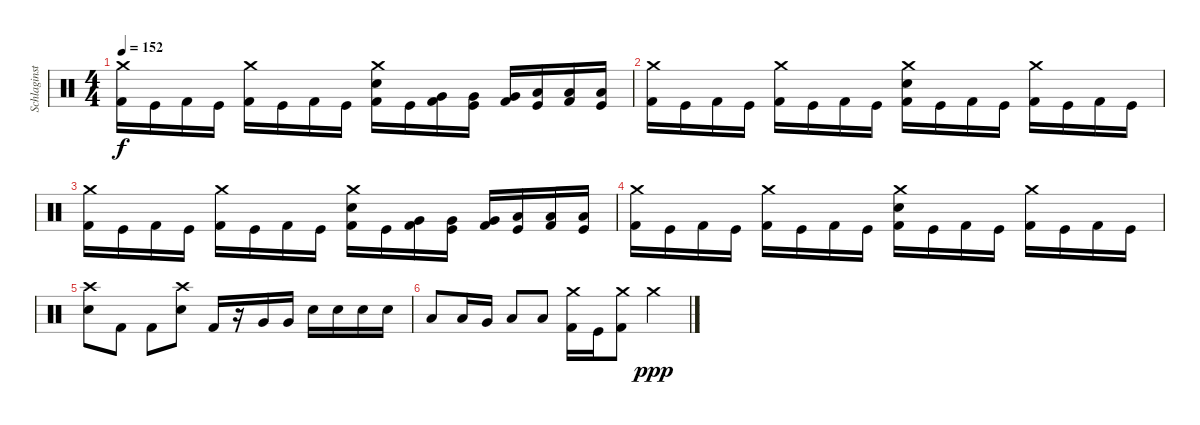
\track ("Schlaginstrumente - Auswahl" "Schlaginst") {instrument percussion}
\staff
\articulation defaults
\ts (4 4)
\tempo 152
\clef neutral
\ks c
("Crash medium (hit)" "Kick (hit) 2").16{dy f} "Kick (hit)".16 "Kick (hit) 2".16 "Kick (hit)".16 ("Crash medium (hit)" "Kick (hit) 2").16 "Kick (hit)".16 "Kick (hit) 2".16 "Kick (hit)".16 ("Crash medium (hit)" "Electric Snare (hit)" "Kick (hit) 2").16 "Kick (hit)".16 ("Very Low Tom (hit)" "Kick (hit) 2").16 ("Very Low Tom (hit)" "Kick (hit)").16 ("Very Low Tom (hit)" "Kick (hit) 2").16 ("Low Floor Tom (hit)" "Kick (hit)").16 ("Low Floor Tom (hit)" "Kick (hit) 2").16 ("Low Floor Tom (hit)" "Kick (hit)").16 |
("Crash medium (hit)" "Kick (hit) 2").16 "Kick (hit)".16 "Kick (hit) 2".16 "Kick (hit)".16 ("Crash medium (hit)" "Kick (hit) 2").16 "Kick (hit)".16 "Kick (hit) 2".16 "Kick (hit)".16 ("Crash medium (hit)" "Electric Snare (hit)" "Kick (hit) 2").16 "Kick (hit)".16 "Kick (hit) 2".16 "Kick (hit)".16 ("Crash medium (hit)" "Kick (hit) 2").16 "Kick (hit)".16 "Kick (hit) 2".16 "Kick (hit)".16 |
("Crash medium (hit)" "Kick (hit) 2").16 "Kick (hit)".16 "Kick (hit) 2".16 "Kick (hit)".16 ("Crash medium (hit)" "Kick (hit) 2").16 "Kick (hit)".16 "Kick (hit) 2".16 "Kick (hit)".16 ("Crash medium (hit)" "Electric Snare (hit)" "Kick (hit) 2").16 "Kick (hit)".16 ("Very Low Tom (hit)" "Kick (hit) 2").16 ("Very Low Tom (hit)" "Kick (hit)").16 ("Very Low Tom (hit)" "Kick (hit) 2").16 ("Low Floor Tom (hit)" "Kick (hit)").16 ("Low Floor Tom (hit)" "Kick (hit) 2").16 ("Low Floor Tom (hit)" "Kick (hit)").16 |
("Crash medium (hit)" "Kick (hit) 2").16 "Kick (hit)".16 "Kick (hit) 2".16 "Kick (hit)".16 ("Crash medium (hit)" "Kick (hit) 2").16 "Kick (hit)".16 "Kick (hit) 2".16 "Kick (hit)".16 ("Crash medium (hit)" "Electric Snare (hit)" "Kick (hit) 2").16 "Kick (hit)".16 "Kick (hit) 2".16 "Kick (hit)".16 ("Crash medium (hit)" "Kick (hit) 2").16 "Kick (hit)".16 "Kick (hit) 2".16 "Kick (hit)".16 |
("Crash high (hit)" "Electric Snare (hit)").8 "Kick (hit) 2".8 "Kick (hit) 2".8 ("Crash high (hit)" "Electric Snare (hit)").8 "Kick (hit) 2".16 r.16 "Very Low Tom (hit)".16 "Very Low Tom (hit)".16 "Electric Snare (hit)".16 "Electric Snare (hit)".16 "Electric Snare (hit)".16 "Electric Snare (hit)".16 |
"Low Floor Tom (hit)".8 "Low Floor Tom (hit)".16 "Very Low Tom (hit)".16 "Low Floor Tom (hit)".8 "Low Floor Tom (hit)".8 ("Crash medium (hit)" "Kick (hit) 2").16 "Kick (hit)".16 ("Crash medium (hit)" "Kick (hit) 2").8 "Crash medium (hit)".4{dy ppp}
